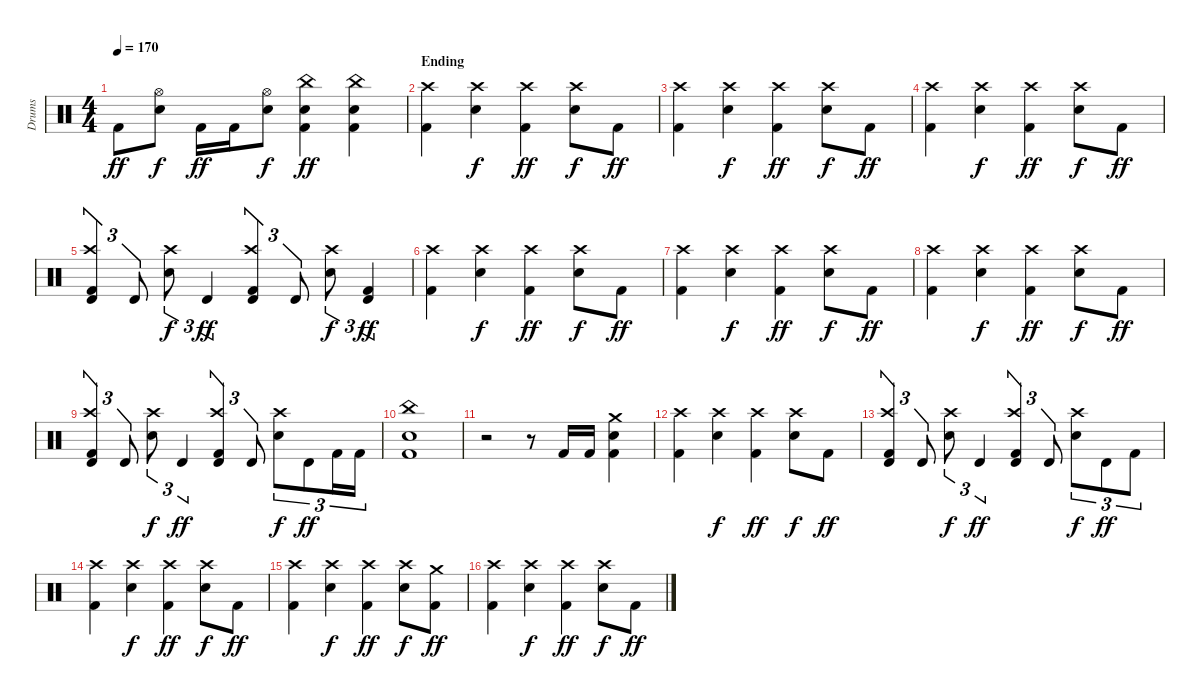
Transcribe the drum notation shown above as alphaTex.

\track ("Drums" "Drums") {instrument percussion}
\staff {score}
\articulation defaults
\ts (4 4)
\tempo 170
\clef neutral
\ks c "Kick (hit) 2".8{dy ff}
("Hi-Hat (open)" "Electric Snare (hit)").8{dy f} "Kick (hit) 2".16{dy ff} "Kick (hit) 2".16 ("Hi-Hat (open)" "Electric Snare (hit)").8{dy f} ("China (hit)" "Electric Snare (hit)" "Kick (hit) 2").4{dy ff} ("China (hit)" "Electric Snare (hit)" "Kick (hit) 2").4 |
\section ("" "Ending")
("Crash high (hit)" "Kick (hit) 2").4{volume 13} ("Crash high (hit)" "Electric Snare (hit)").4{dy f} ("Crash high (hit)" "Kick (hit) 2").4{dy ff} ("Crash high (hit)" "Electric Snare (hit)").8{dy f} "Kick (hit) 2".8{dy ff} |
("Crash high (hit)" "Kick (hit) 2").4 ("Crash high (hit)" "Electric Snare (hit)").4{dy f} ("Crash high (hit)" "Kick (hit) 2").4{dy ff} ("Crash high (hit)" "Electric Snare (hit)").8{dy f} "Kick (hit) 2".8{dy ff} |
("Crash high (hit)" "Kick (hit) 2").4 ("Crash high (hit)" "Electric Snare (hit)").4{dy f} ("Crash high (hit)" "Kick (hit) 2").4{dy ff} ("Crash high (hit)" "Electric Snare (hit)").8{dy f} "Kick (hit) 2".8{dy ff} |
("Crash high (hit)" "Timbale high (hit)" "Kick (hit) 2").4{tu (3 2)} "Timbale high (hit)".8{tu (3 2)} ("Crash high (hit)" "Electric Snare (hit)").8{tu (3 2) dy f} "Timbale high (hit)".4{tu (3 2) dy ff} ("Crash high (hit)" "Timbale high (hit)" "Kick (hit) 2").4{tu (3 2)} "Timbale high (hit)".8{tu (3 2)} ("Crash high (hit)" "Electric Snare (hit)").8{tu (3 2) dy f} ("Timbale high (hit)" "Kick (hit) 2").4{tu (3 2) dy ff} |
("Crash high (hit)" "Kick (hit) 2").4 ("Crash high (hit)" "Electric Snare (hit)").4{dy f} ("Crash high (hit)" "Kick (hit) 2").4{dy ff} ("Crash high (hit)" "Electric Snare (hit)").8{dy f} "Kick (hit) 2".8{dy ff} |
("Crash high (hit)" "Kick (hit) 2").4 ("Crash high (hit)" "Electric Snare (hit)").4{dy f} ("Crash high (hit)" "Kick (hit) 2").4{dy ff} ("Crash high (hit)" "Electric Snare (hit)").8{dy f} "Kick (hit) 2".8{dy ff} |
("Crash high (hit)" "Kick (hit) 2").4 ("Crash high (hit)" "Electric Snare (hit)").4{dy f} ("Crash high (hit)" "Kick (hit) 2").4{dy ff} ("Crash high (hit)" "Electric Snare (hit)").8{dy f} "Kick (hit) 2".8{dy ff} |
("Crash high (hit)" "Timbale high (hit)" "Kick (hit) 2").4{tu (3 2)} "Timbale high (hit)".8{tu (3 2)} ("Crash high (hit)" "Electric Snare (hit)").8{tu (3 2) dy f} "Timbale high (hit)".4{tu (3 2) dy ff} ("Crash high (hit)" "Timbale high (hit)" "Kick (hit) 2").4{tu (3 2)} "Timbale high (hit)".8{tu (3 2)} ("Crash high (hit)" "Electric Snare (hit)").8{tu (3 2) dy f} "Timbale high (hit)".8{tu (3 2) dy ff} "Kick (hit) 2".16{tu (3 2)} "Kick (hit) 2".16{tu (3 2)} |
("China (hit)" "Electric Snare (hit)" "Kick (hit) 2").1 |
r.2 r.8 "Kick (hit) 2".16 "Kick (hit) 2".16 ("Crash medium (hit)" "Electric Snare (hit)" "Kick (hit) 2").4 |
("Crash high (hit)" "Kick (hit) 2").4 ("Crash high (hit)" "Electric Snare (hit)").4{dy f} ("Crash high (hit)" "Kick (hit) 2").4{dy ff} ("Crash high (hit)" "Electric Snare (hit)").8{dy f} "Kick (hit) 2".8{dy ff} |
("Crash high (hit)" "Timbale high (hit)" "Kick (hit) 2").4{tu (3 2)} "Timbale high (hit)".8{tu (3 2)} ("Crash high (hit)" "Electric Snare (hit)").8{tu (3 2) dy f} "Timbale high (hit)".4{tu (3 2) dy ff} ("Crash high (hit)" "Timbale high (hit)" "Kick (hit) 2").4{tu (3 2)} "Timbale high (hit)".8{tu (3 2)} ("Crash high (hit)" "Electric Snare (hit)").8{tu (3 2) dy f} "Timbale high (hit)".8{tu (3 2) dy ff} "Kick (hit) 2".8{tu (3 2)} |
("Crash high (hit)" "Kick (hit) 2").4 ("Crash high (hit)" "Electric Snare (hit)").4{dy f} ("Crash high (hit)" "Kick (hit) 2").4{dy ff} ("Crash high (hit)" "Electric Snare (hit)").8{dy f} "Kick (hit) 2".8{dy ff} |
("Crash high (hit)" "Kick (hit) 2").4 ("Crash high (hit)" "Electric Snare (hit)").4{dy f} ("Crash high (hit)" "Kick (hit) 2").4{dy ff} ("Crash high (hit)" "Electric Snare (hit)").8{dy f} ("Crash medium (hit)" "Kick (hit) 2").8{dy ff} |
("Crash high (hit)" "Kick (hit) 2").4 ("Crash high (hit)" "Electric Snare (hit)").4{dy f} ("Crash high (hit)" "Kick (hit) 2").4{dy ff} ("Crash high (hit)" "Electric Snare (hit)").8{dy f} "Kick (hit) 2".8{dy ff}
